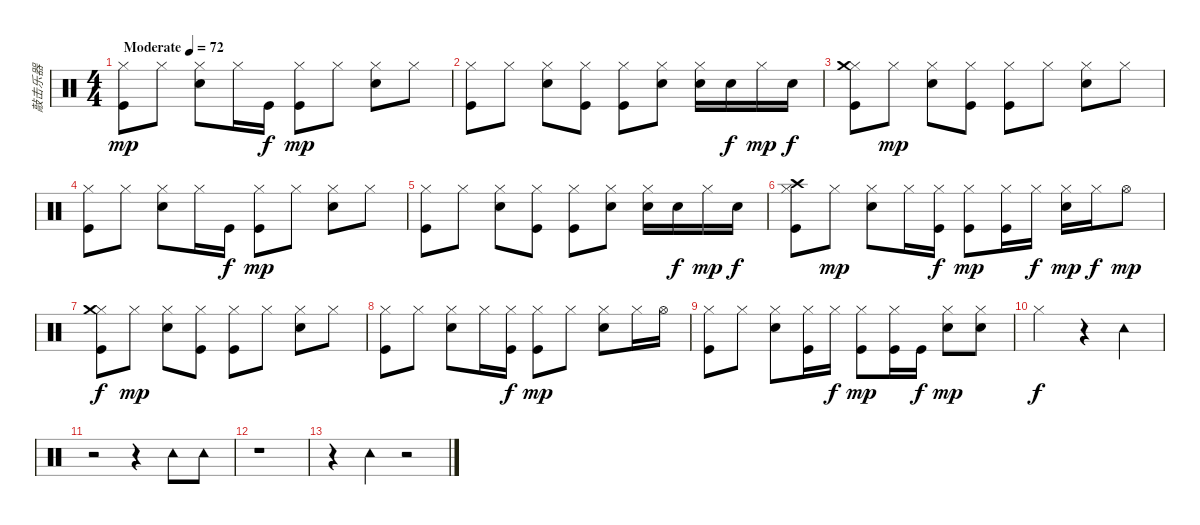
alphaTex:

\track ("敲击乐器" "敲击乐器") {instrument percussion}
\staff {score}
\articulation defaults
\ts (4 4)
\tempo (72 "Moderate")
\clef neutral
\ks c
("Kick (hit)" "Hi-Hat (closed)").8{dy mp} "Hi-Hat (closed)".8 ("Electric Snare (hit)" "Hi-Hat (closed)").8 "Hi-Hat (closed)".16 "Kick (hit)".16{dy f} ("Kick (hit)" "Hi-Hat (closed)").8{dy mp} "Hi-Hat (closed)".8 ("Electric Snare (hit)" "Hi-Hat (closed)").8 "Hi-Hat (closed)".8 |
("Kick (hit)" "Hi-Hat (closed)").8 "Hi-Hat (closed)".8 ("Electric Snare (hit)" "Hi-Hat (closed)").8 ("Kick (hit)" "Hi-Hat (closed)").8 ("Kick (hit)" "Hi-Hat (closed)").8 ("Electric Snare (hit)" "Hi-Hat (closed)").8 ("Electric Snare (hit)" "Hi-Hat (closed)").16 "Electric Snare (hit)".16{dy f} "Hi-Hat (closed)".16{dy mp} "Electric Snare (hit)".16{dy f} |
("Kick (hit)" "Hi-Hat (closed)" "Crash medium (hit)").8 "Hi-Hat (closed)".8{dy mp} ("Electric Snare (hit)" "Hi-Hat (closed)").8 ("Kick (hit)" "Hi-Hat (closed)").8 ("Kick (hit)" "Hi-Hat (closed)").8 "Hi-Hat (closed)".8 ("Electric Snare (hit)" "Hi-Hat (closed)").8 "Hi-Hat (closed)".8 |
("Kick (hit)" "Hi-Hat (closed)").8 "Hi-Hat (closed)".8 ("Electric Snare (hit)" "Hi-Hat (closed)").8 "Hi-Hat (closed)".16 "Kick (hit)".16{dy f} ("Kick (hit)" "Hi-Hat (closed)").8{dy mp} "Hi-Hat (closed)".8 ("Electric Snare (hit)" "Hi-Hat (closed)").8 "Hi-Hat (closed)".8 |
("Kick (hit)" "Hi-Hat (closed)").8 "Hi-Hat (closed)".8 ("Electric Snare (hit)" "Hi-Hat (closed)").8 ("Kick (hit)" "Hi-Hat (closed)").8 ("Kick (hit)" "Hi-Hat (closed)").8 ("Electric Snare (hit)" "Hi-Hat (closed)").8 ("Electric Snare (hit)" "Hi-Hat (closed)").16 "Electric Snare (hit)".16{dy f} "Hi-Hat (closed)".16{dy mp} "Electric Snare (hit)".16{dy f} |
("Kick (hit)" "Hi-Hat (closed)" "Crash high (hit)").8 "Hi-Hat (closed)".8{dy mp} ("Electric Snare (hit)" "Hi-Hat (closed)").8 "Hi-Hat (closed)".16 ("Kick (hit)" "Hi-Hat (closed)").16{dy f} ("Kick (hit)" "Hi-Hat (closed)").8{dy mp} ("Kick (hit)" "Hi-Hat (closed)").16 "Hi-Hat (closed)".16{dy f} ("Electric Snare (hit)" "Hi-Hat (closed)").16{dy mp} "Hi-Hat (closed)".16{dy f} "Hi-Hat (open)".8{dy mp} |
("Kick (hit)" "Hi-Hat (closed)" "Crash medium (hit)").8{dy f} "Hi-Hat (closed)".8{dy mp} ("Electric Snare (hit)" "Hi-Hat (closed)").8 ("Kick (hit)" "Hi-Hat (closed)").8 ("Kick (hit)" "Hi-Hat (closed)").8 "Hi-Hat (closed)".8 ("Electric Snare (hit)" "Hi-Hat (closed)").8 "Hi-Hat (closed)".8 |
("Kick (hit)" "Hi-Hat (closed)").8 "Hi-Hat (closed)".8 ("Electric Snare (hit)" "Hi-Hat (closed)").8 "Hi-Hat (closed)".16 ("Kick (hit)" "Hi-Hat (closed)").16{dy f} ("Kick (hit)" "Hi-Hat (closed)").8{dy mp} "Hi-Hat (closed)".8 ("Electric Snare (hit)" "Hi-Hat (closed)").8 "Hi-Hat (closed)".16 "Hi-Hat (open)".16 |
("Kick (hit)" "Hi-Hat (closed)").8 "Hi-Hat (closed)".8 ("Electric Snare (hit)" "Hi-Hat (closed)").8 ("Kick (hit)" "Hi-Hat (closed)").16 "Hi-Hat (closed)".16{dy f} ("Kick (hit)" "Hi-Hat (closed)").8{dy mp} ("Kick (hit)" "Hi-Hat (closed)").16 "Kick (hit)".16{dy f} ("Electric Snare (hit)" "Hi-Hat (closed)").8{dy mp} ("Electric Snare (hit)" "Hi-Hat (closed)").8 |
"Hi-Hat (closed)".2{dy f} r.4 "Tambourine (hit)".4 |
r.2 r.4 "Tambourine (hit)".8 "Tambourine (hit)".8 |
r.1 |
r.4 "Tambourine (hit)".4 r.2
